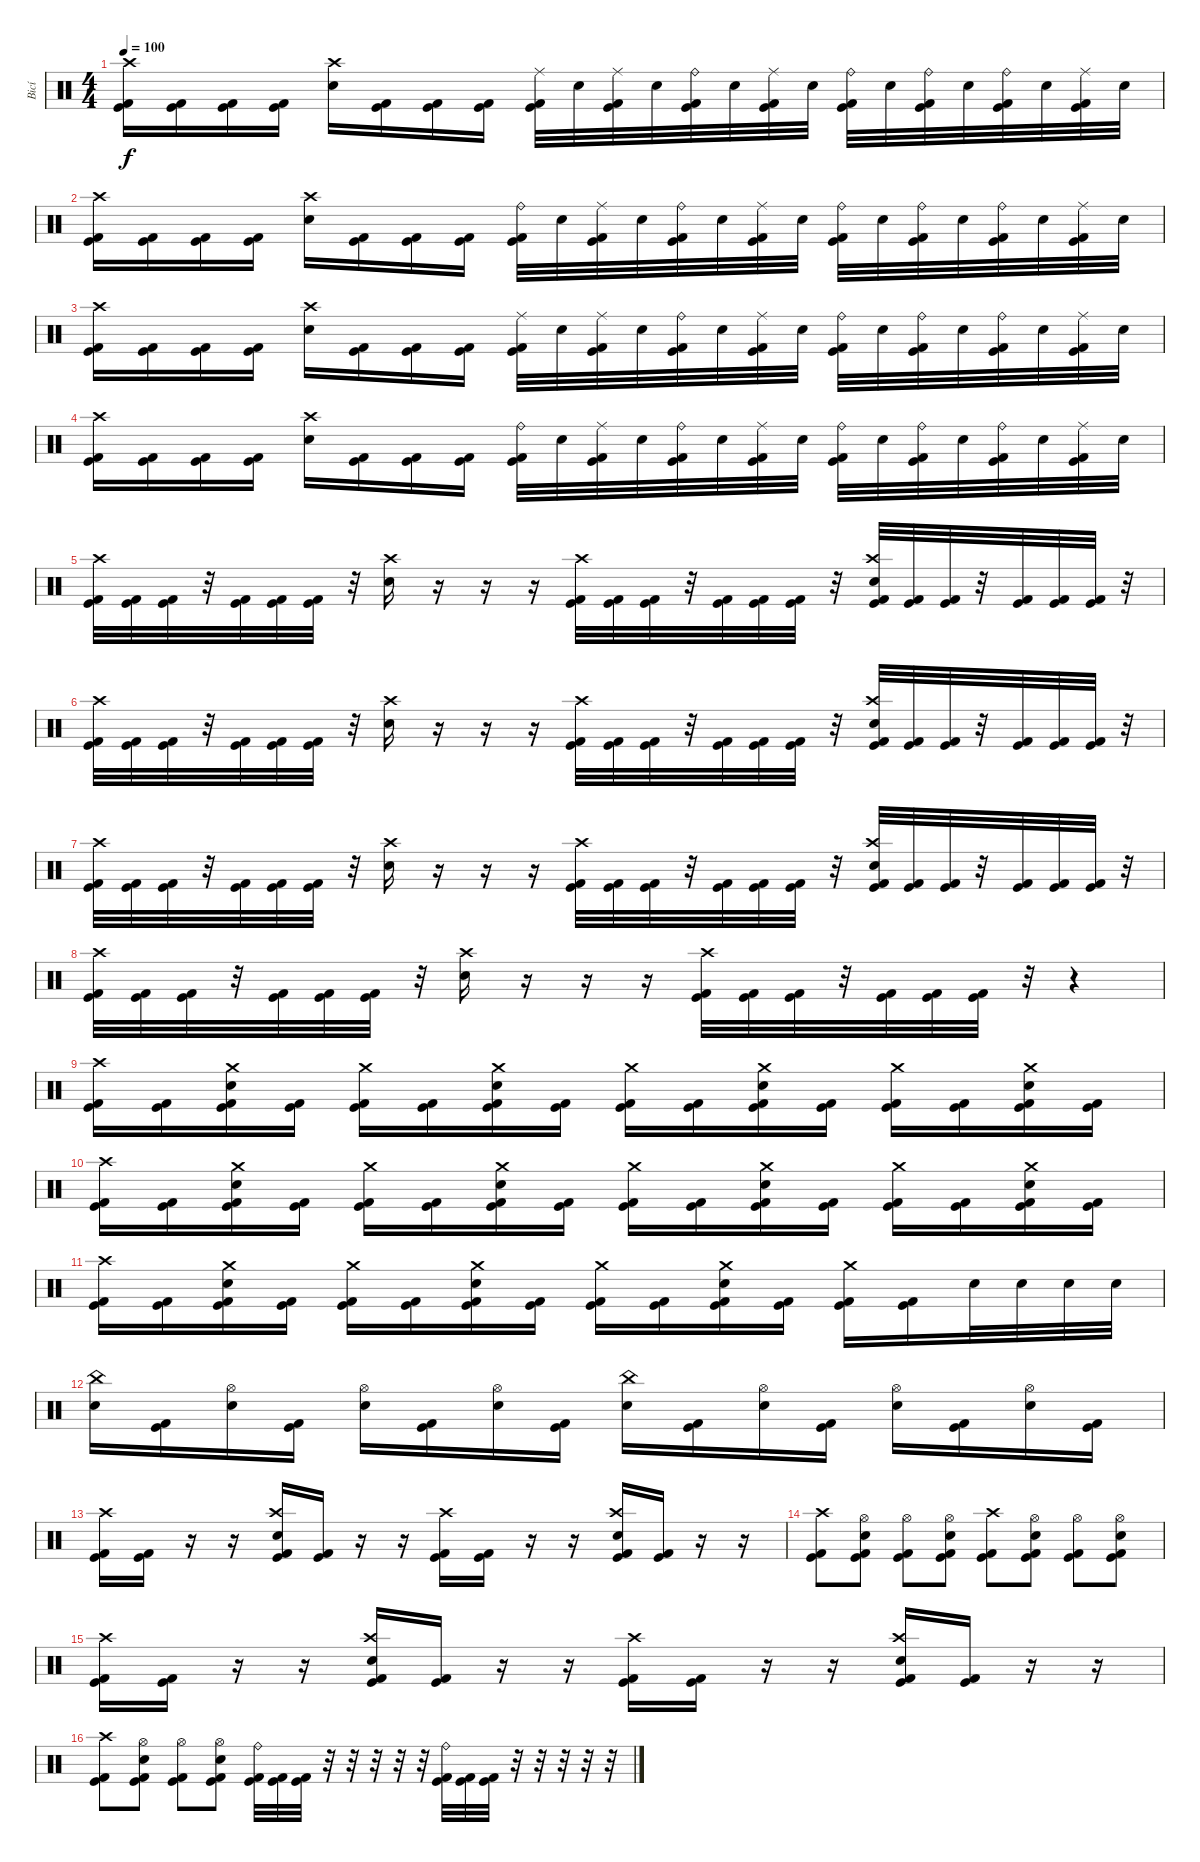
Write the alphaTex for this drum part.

\track ("Bicí" "Bicí") {instrument percussion}
\staff {score}
\articulation defaults
\ts (4 4)
\tempo 100
\clef neutral
\ks c
("Kick (hit) 2" "Kick (hit)" "Crash high (hit)").16{dy f} ("Kick (hit) 2" "Kick (hit)").16 ("Kick (hit) 2" "Kick (hit)").16 ("Kick (hit) 2" "Kick (hit)").16 ("Crash high (hit)" "Electric Snare (hit)").16 ("Kick (hit) 2" "Kick (hit)").16 ("Kick (hit) 2" "Kick (hit)").16 ("Kick (hit) 2" "Kick (hit)").16 ("Kick (hit) 2" "Kick (hit)" "Ride (middle)").32 "Electric Snare (hit)".32 ("Kick (hit) 2" "Kick (hit)" "Ride (middle)").32 "Electric Snare (hit)".32 ("Kick (hit) 2" "Kick (hit)" "Ride (bell)").32 "Electric Snare (hit)".32 ("Kick (hit) 2" "Kick (hit)" "Ride (middle)").32 "Electric Snare (hit)".32 ("Kick (hit) 2" "Kick (hit)" "Ride (bell)").32 "Electric Snare (hit)".32 ("Kick (hit) 2" "Kick (hit)" "Ride (bell)").32 "Electric Snare (hit)".32 ("Kick (hit) 2" "Kick (hit)" "Ride (bell)").32 "Electric Snare (hit)".32 ("Kick (hit) 2" "Kick (hit)" "Ride (middle)").32 "Electric Snare (hit)".32 |
("Kick (hit) 2" "Kick (hit)" "Crash high (hit)").16 ("Kick (hit) 2" "Kick (hit)").16 ("Kick (hit) 2" "Kick (hit)").16 ("Kick (hit) 2" "Kick (hit)").16 ("Crash high (hit)" "Electric Snare (hit)").16 ("Kick (hit) 2" "Kick (hit)").16 ("Kick (hit) 2" "Kick (hit)").16 ("Kick (hit) 2" "Kick (hit)").16 ("Kick (hit) 2" "Kick (hit)" "Ride (bell)").32 "Electric Snare (hit)".32 ("Kick (hit) 2" "Kick (hit)" "Ride (middle)").32 "Electric Snare (hit)".32 ("Kick (hit) 2" "Kick (hit)" "Ride (bell)").32 "Electric Snare (hit)".32 ("Kick (hit) 2" "Kick (hit)" "Ride (middle)").32 "Electric Snare (hit)".32 ("Kick (hit) 2" "Kick (hit)" "Ride (bell)").32 "Electric Snare (hit)".32 ("Kick (hit) 2" "Kick (hit)" "Ride (bell)").32 "Electric Snare (hit)".32 ("Kick (hit) 2" "Kick (hit)" "Ride (bell)").32 "Electric Snare (hit)".32 ("Kick (hit) 2" "Kick (hit)" "Ride (middle)").32 "Electric Snare (hit)".32 |
("Kick (hit) 2" "Kick (hit)" "Crash high (hit)").16 ("Kick (hit) 2" "Kick (hit)").16 ("Kick (hit) 2" "Kick (hit)").16 ("Kick (hit) 2" "Kick (hit)").16 ("Crash high (hit)" "Electric Snare (hit)").16 ("Kick (hit) 2" "Kick (hit)").16 ("Kick (hit) 2" "Kick (hit)").16 ("Kick (hit) 2" "Kick (hit)").16 ("Kick (hit) 2" "Kick (hit)" "Ride (middle)").32 "Electric Snare (hit)".32 ("Kick (hit) 2" "Kick (hit)" "Ride (middle)").32 "Electric Snare (hit)".32 ("Kick (hit) 2" "Kick (hit)" "Ride (bell)").32 "Electric Snare (hit)".32 ("Kick (hit) 2" "Kick (hit)" "Ride (middle)").32 "Electric Snare (hit)".32 ("Kick (hit) 2" "Kick (hit)" "Ride (bell)").32 "Electric Snare (hit)".32 ("Kick (hit) 2" "Kick (hit)" "Ride (bell)").32 "Electric Snare (hit)".32 ("Kick (hit) 2" "Kick (hit)" "Ride (bell)").32 "Electric Snare (hit)".32 ("Kick (hit) 2" "Kick (hit)" "Ride (middle)").32 "Electric Snare (hit)".32 |
("Kick (hit) 2" "Kick (hit)" "Crash high (hit)").16 ("Kick (hit) 2" "Kick (hit)").16 ("Kick (hit) 2" "Kick (hit)").16 ("Kick (hit) 2" "Kick (hit)").16 ("Crash high (hit)" "Electric Snare (hit)").16 ("Kick (hit) 2" "Kick (hit)").16 ("Kick (hit) 2" "Kick (hit)").16 ("Kick (hit) 2" "Kick (hit)").16 ("Kick (hit) 2" "Kick (hit)" "Ride (bell)").32 "Electric Snare (hit)".32 ("Kick (hit) 2" "Kick (hit)" "Ride (middle)").32 "Electric Snare (hit)".32 ("Kick (hit) 2" "Kick (hit)" "Ride (bell)").32 "Electric Snare (hit)".32 ("Kick (hit) 2" "Kick (hit)" "Ride (middle)").32 "Electric Snare (hit)".32 ("Kick (hit) 2" "Kick (hit)" "Ride (bell)").32 "Electric Snare (hit)".32 ("Kick (hit) 2" "Kick (hit)" "Ride (bell)").32 "Electric Snare (hit)".32 ("Kick (hit) 2" "Kick (hit)" "Ride (bell)").32 "Electric Snare (hit)".32 ("Kick (hit) 2" "Kick (hit)" "Ride (middle)").32 "Electric Snare (hit)".32 |
("Kick (hit) 2" "Kick (hit)" "Crash high (hit)").32 ("Kick (hit) 2" "Kick (hit)").32 ("Kick (hit) 2" "Kick (hit)").32 r.32 ("Kick (hit) 2" "Kick (hit)").32 ("Kick (hit) 2" "Kick (hit)").32 ("Kick (hit) 2" "Kick (hit)").32 r.32 ("Crash high (hit)" "Electric Snare (hit)").16 r.16 r.16 r.16 ("Kick (hit) 2" "Kick (hit)" "Crash high (hit)").32 ("Kick (hit) 2" "Kick (hit)").32 ("Kick (hit) 2" "Kick (hit)").32 r.32 ("Kick (hit) 2" "Kick (hit)").32 ("Kick (hit) 2" "Kick (hit)").32 ("Kick (hit) 2" "Kick (hit)").32 r.32 ("Kick (hit) 2" "Kick (hit)" "Crash high (hit)" "Electric Snare (hit)").32 ("Kick (hit) 2" "Kick (hit)").32 ("Kick (hit) 2" "Kick (hit)").32 r.32 ("Kick (hit) 2" "Kick (hit)").32 ("Kick (hit) 2" "Kick (hit)").32 ("Kick (hit) 2" "Kick (hit)").32 r.32 |
("Kick (hit) 2" "Kick (hit)" "Crash high (hit)").32 ("Kick (hit) 2" "Kick (hit)").32 ("Kick (hit) 2" "Kick (hit)").32 r.32 ("Kick (hit) 2" "Kick (hit)").32 ("Kick (hit) 2" "Kick (hit)").32 ("Kick (hit) 2" "Kick (hit)").32 r.32 ("Crash high (hit)" "Electric Snare (hit)").16 r.16 r.16 r.16 ("Kick (hit) 2" "Kick (hit)" "Crash high (hit)").32 ("Kick (hit) 2" "Kick (hit)").32 ("Kick (hit) 2" "Kick (hit)").32 r.32 ("Kick (hit) 2" "Kick (hit)").32 ("Kick (hit) 2" "Kick (hit)").32 ("Kick (hit) 2" "Kick (hit)").32 r.32 ("Kick (hit) 2" "Kick (hit)" "Crash high (hit)" "Electric Snare (hit)").32 ("Kick (hit) 2" "Kick (hit)").32 ("Kick (hit) 2" "Kick (hit)").32 r.32 ("Kick (hit) 2" "Kick (hit)").32 ("Kick (hit) 2" "Kick (hit)").32 ("Kick (hit) 2" "Kick (hit)").32 r.32 |
("Kick (hit) 2" "Kick (hit)" "Crash high (hit)").32 ("Kick (hit) 2" "Kick (hit)").32 ("Kick (hit) 2" "Kick (hit)").32 r.32 ("Kick (hit) 2" "Kick (hit)").32 ("Kick (hit) 2" "Kick (hit)").32 ("Kick (hit) 2" "Kick (hit)").32 r.32 ("Crash high (hit)" "Electric Snare (hit)").16 r.16 r.16 r.16 ("Kick (hit) 2" "Kick (hit)" "Crash high (hit)").32 ("Kick (hit) 2" "Kick (hit)").32 ("Kick (hit) 2" "Kick (hit)").32 r.32 ("Kick (hit) 2" "Kick (hit)").32 ("Kick (hit) 2" "Kick (hit)").32 ("Kick (hit) 2" "Kick (hit)").32 r.32 ("Kick (hit) 2" "Kick (hit)" "Crash high (hit)" "Electric Snare (hit)").32 ("Kick (hit) 2" "Kick (hit)").32 ("Kick (hit) 2" "Kick (hit)").32 r.32 ("Kick (hit) 2" "Kick (hit)").32 ("Kick (hit) 2" "Kick (hit)").32 ("Kick (hit) 2" "Kick (hit)").32 r.32 |
("Kick (hit) 2" "Kick (hit)" "Crash high (hit)").32 ("Kick (hit) 2" "Kick (hit)").32 ("Kick (hit) 2" "Kick (hit)").32 r.32 ("Kick (hit) 2" "Kick (hit)").32 ("Kick (hit) 2" "Kick (hit)").32 ("Kick (hit) 2" "Kick (hit)").32 r.32 ("Crash high (hit)" "Electric Snare (hit)").16 r.16 r.16 r.16 ("Kick (hit) 2" "Kick (hit)" "Crash high (hit)").32 ("Kick (hit) 2" "Kick (hit)").32 ("Kick (hit) 2" "Kick (hit)").32 r.32 ("Kick (hit) 2" "Kick (hit)").32 ("Kick (hit) 2" "Kick (hit)").32 ("Kick (hit) 2" "Kick (hit)").32 r.32 r.4 |
("Kick (hit) 2" "Kick (hit)" "Crash high (hit)").16 ("Kick (hit) 2" "Kick (hit)").16 ("Kick (hit) 2" "Kick (hit)" "Electric Snare (hit)" "Crash medium (hit)").16 ("Kick (hit)" "Kick (hit) 2").16 ("Kick (hit) 2" "Kick (hit)" "Crash medium (hit)").16 ("Kick (hit) 2" "Kick (hit)").16 ("Kick (hit) 2" "Kick (hit)" "Electric Snare (hit)" "Crash medium (hit)").16 ("Kick (hit)" "Kick (hit) 2").16 ("Kick (hit) 2" "Kick (hit)" "Crash medium (hit)").16 ("Kick (hit) 2" "Kick (hit)").16 ("Kick (hit) 2" "Kick (hit)" "Electric Snare (hit)" "Crash medium (hit)").16 ("Kick (hit)" "Kick (hit) 2").16 ("Kick (hit) 2" "Kick (hit)" "Crash medium (hit)").16 ("Kick (hit) 2" "Kick (hit)").16 ("Kick (hit) 2" "Kick (hit)" "Electric Snare (hit)" "Crash medium (hit)").16 ("Kick (hit)" "Kick (hit) 2").16 |
("Kick (hit) 2" "Kick (hit)" "Crash high (hit)").16 ("Kick (hit) 2" "Kick (hit)").16 ("Kick (hit) 2" "Kick (hit)" "Electric Snare (hit)" "Crash medium (hit)").16 ("Kick (hit)" "Kick (hit) 2").16 ("Kick (hit) 2" "Kick (hit)" "Crash medium (hit)").16 ("Kick (hit) 2" "Kick (hit)").16 ("Kick (hit) 2" "Kick (hit)" "Electric Snare (hit)" "Crash medium (hit)").16 ("Kick (hit)" "Kick (hit) 2").16 ("Kick (hit) 2" "Kick (hit)" "Crash medium (hit)").16 ("Kick (hit) 2" "Kick (hit)").16 ("Kick (hit) 2" "Kick (hit)" "Electric Snare (hit)" "Crash medium (hit)").16 ("Kick (hit)" "Kick (hit) 2").16 ("Kick (hit) 2" "Kick (hit)" "Crash medium (hit)").16 ("Kick (hit) 2" "Kick (hit)").16 ("Kick (hit) 2" "Kick (hit)" "Electric Snare (hit)" "Crash medium (hit)").16 ("Kick (hit)" "Kick (hit) 2").16 |
("Kick (hit) 2" "Kick (hit)" "Crash high (hit)").16 ("Kick (hit) 2" "Kick (hit)").16 ("Kick (hit) 2" "Kick (hit)" "Electric Snare (hit)" "Crash medium (hit)").16 ("Kick (hit)" "Kick (hit) 2").16 ("Kick (hit) 2" "Kick (hit)" "Crash medium (hit)").16 ("Kick (hit) 2" "Kick (hit)").16 ("Kick (hit) 2" "Kick (hit)" "Electric Snare (hit)" "Crash medium (hit)").16 ("Kick (hit)" "Kick (hit) 2").16 ("Kick (hit) 2" "Kick (hit)" "Crash medium (hit)").16 ("Kick (hit) 2" "Kick (hit)").16 ("Kick (hit) 2" "Kick (hit)" "Electric Snare (hit)" "Crash medium (hit)").16 ("Kick (hit)" "Kick (hit) 2").16 ("Kick (hit) 2" "Kick (hit)" "Crash medium (hit)").16 ("Kick (hit) 2" "Kick (hit)").16 "Electric Snare (hit)".32 "Electric Snare (hit)".32 "Electric Snare (hit)".32 "Electric Snare (hit)".32 |
("Electric Snare (hit)" "China (hit)").16 ("Kick (hit) 2" "Kick (hit)").16 ("Hi-Hat (open)" "Electric Snare (hit)").16 ("Kick (hit) 2" "Kick (hit)").16 ("Hi-Hat (open)" "Electric Snare (hit)").16 ("Kick (hit) 2" "Kick (hit)").16 ("Hi-Hat (open)" "Electric Snare (hit)").16 ("Kick (hit) 2" "Kick (hit)").16 ("China (hit)" "Electric Snare (hit)").16 ("Kick (hit) 2" "Kick (hit)").16 ("Hi-Hat (open)" "Electric Snare (hit)").16 ("Kick (hit) 2" "Kick (hit)").16 ("Hi-Hat (open)" "Electric Snare (hit)").16 ("Kick (hit) 2" "Kick (hit)").16 ("Hi-Hat (open)" "Electric Snare (hit)").16 ("Kick (hit) 2" "Kick (hit)").16 |
("Kick (hit) 2" "Kick (hit)" "Crash high (hit)").16 ("Kick (hit) 2" "Kick (hit)").16 r.16 r.16 ("Kick (hit) 2" "Kick (hit)" "Crash high (hit)" "Electric Snare (hit)").16 ("Kick (hit) 2" "Kick (hit)").16 r.16 r.16 ("Kick (hit) 2" "Kick (hit)" "Crash high (hit)").16 ("Kick (hit) 2" "Kick (hit)").16 r.16 r.16 ("Kick (hit) 2" "Kick (hit)" "Crash high (hit)" "Electric Snare (hit)").16 ("Kick (hit) 2" "Kick (hit)").16 r.16 r.16 |
("Crash high (hit)" "Kick (hit) 2" "Kick (hit)").8 ("Hi-Hat (open)" "Kick (hit)" "Kick (hit) 2" "Electric Snare (hit)").8 ("Hi-Hat (open)" "Kick (hit) 2" "Kick (hit)").8 ("Hi-Hat (open)" "Kick (hit) 2" "Kick (hit)" "Electric Snare (hit)").8 ("Crash high (hit)" "Kick (hit) 2" "Kick (hit)").8 ("Hi-Hat (open)" "Kick (hit)" "Kick (hit) 2" "Electric Snare (hit)").8 ("Hi-Hat (open)" "Kick (hit) 2" "Kick (hit)").8 ("Hi-Hat (open)" "Kick (hit) 2" "Kick (hit)" "Electric Snare (hit)").8 |
("Kick (hit) 2" "Kick (hit)" "Crash high (hit)").16 ("Kick (hit) 2" "Kick (hit)").16 r.16 r.16 ("Kick (hit) 2" "Kick (hit)" "Crash high (hit)" "Electric Snare (hit)").16 ("Kick (hit) 2" "Kick (hit)").16 r.16 r.16 ("Kick (hit) 2" "Kick (hit)" "Crash high (hit)").16 ("Kick (hit) 2" "Kick (hit)").16 r.16 r.16 ("Kick (hit) 2" "Kick (hit)" "Crash high (hit)" "Electric Snare (hit)").16 ("Kick (hit) 2" "Kick (hit)").16 r.16 r.16 |
("Crash high (hit)" "Kick (hit) 2" "Kick (hit)").8 ("Hi-Hat (open)" "Kick (hit)" "Kick (hit) 2" "Electric Snare (hit)").8 ("Hi-Hat (open)" "Kick (hit) 2" "Kick (hit)").8 ("Hi-Hat (open)" "Kick (hit) 2" "Kick (hit)" "Electric Snare (hit)").8 ("Ride (bell)" "Kick (hit)" "Kick (hit) 2").32 ("Kick (hit) 2" "Kick (hit)").32 ("Kick (hit) 2" "Kick (hit)").32 r.32 r.32 r.32 r.32 r.32 ("Ride (bell)" "Kick (hit)" "Kick (hit) 2").32 ("Kick (hit) 2" "Kick (hit)").32 ("Kick (hit) 2" "Kick (hit)").32 r.32 r.32 r.32 r.32 r.32
